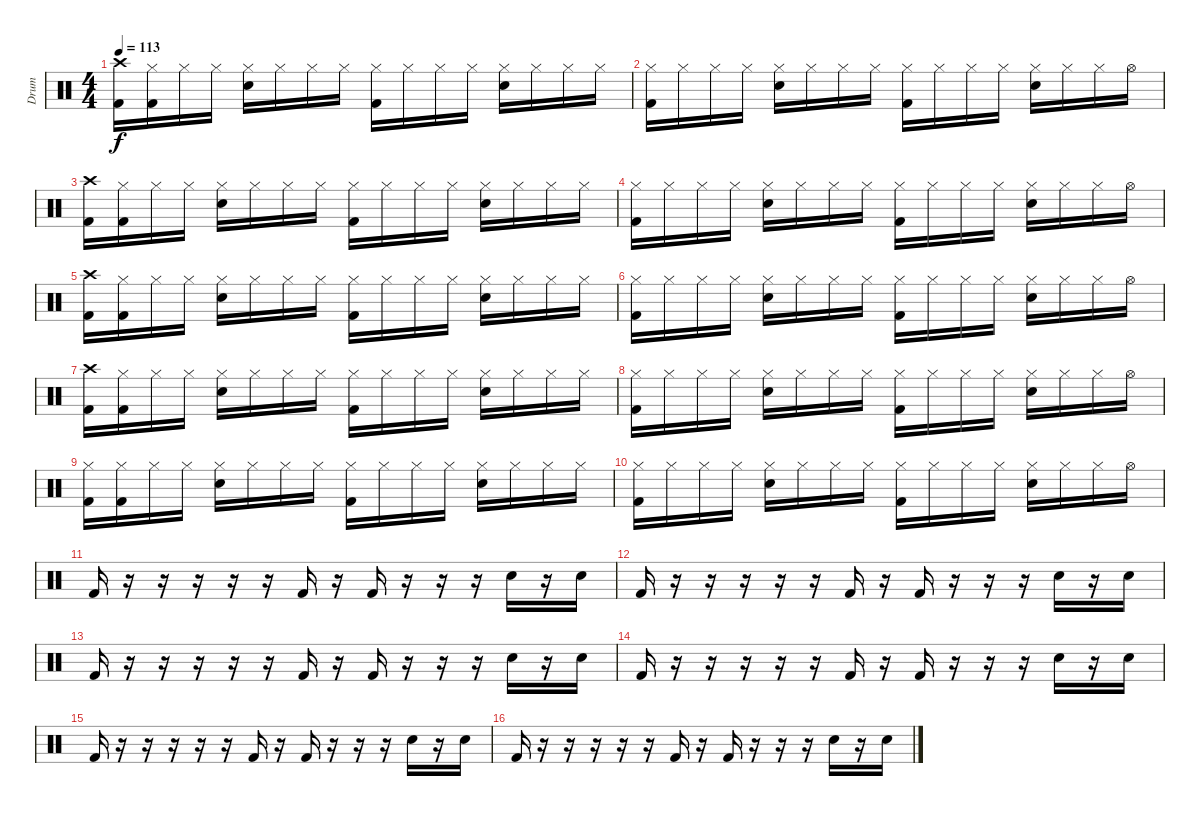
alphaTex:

\track ("Drum" "Drum") {instrument percussion}
\staff {score}
\articulation defaults
\ts (4 4)
\tempo 113
\clef neutral
\ks c
("Crash high (hit)" "Kick (hit) 2").16{dy f} ("Hi-Hat (closed)" "Kick (hit) 2").16 "Hi-Hat (closed)".16 "Hi-Hat (closed)".16 ("Hi-Hat (closed)" "Snare (hit) 2").16 "Hi-Hat (closed)".16 "Hi-Hat (closed)".16 "Hi-Hat (closed)".16 ("Hi-Hat (closed)" "Kick (hit) 2").16 "Hi-Hat (closed)".16 "Hi-Hat (closed)".16 "Hi-Hat (closed)".16 ("Hi-Hat (closed)" "Snare (hit) 2").16 "Hi-Hat (closed)".16 "Hi-Hat (closed)".16 "Hi-Hat (closed)".16 |
("Hi-Hat (closed)" "Kick (hit) 2").16 "Hi-Hat (closed)".16 "Hi-Hat (closed)".16 "Hi-Hat (closed)".16 ("Hi-Hat (closed)" "Snare (hit) 2").16 "Hi-Hat (closed)".16 "Hi-Hat (closed)".16 "Hi-Hat (closed)".16 ("Hi-Hat (closed)" "Kick (hit) 2").16 "Hi-Hat (closed)".16 "Hi-Hat (closed)".16 "Hi-Hat (closed)".16 ("Hi-Hat (closed)" "Snare (hit) 2").16 "Hi-Hat (closed)".16 "Hi-Hat (closed)".16 "Hi-Hat (open)".16 |
("Crash high (hit)" "Kick (hit) 2").16 ("Hi-Hat (closed)" "Kick (hit) 2").16 "Hi-Hat (closed)".16 "Hi-Hat (closed)".16 ("Hi-Hat (closed)" "Snare (hit) 2").16 "Hi-Hat (closed)".16 "Hi-Hat (closed)".16 "Hi-Hat (closed)".16 ("Hi-Hat (closed)" "Kick (hit) 2").16 "Hi-Hat (closed)".16 "Hi-Hat (closed)".16 "Hi-Hat (closed)".16 ("Hi-Hat (closed)" "Snare (hit) 2").16 "Hi-Hat (closed)".16 "Hi-Hat (closed)".16 "Hi-Hat (closed)".16 |
("Hi-Hat (closed)" "Kick (hit) 2").16 "Hi-Hat (closed)".16 "Hi-Hat (closed)".16 "Hi-Hat (closed)".16 ("Hi-Hat (closed)" "Snare (hit) 2").16 "Hi-Hat (closed)".16 "Hi-Hat (closed)".16 "Hi-Hat (closed)".16 ("Hi-Hat (closed)" "Kick (hit) 2").16 "Hi-Hat (closed)".16 "Hi-Hat (closed)".16 "Hi-Hat (closed)".16 ("Hi-Hat (closed)" "Snare (hit) 2").16 "Hi-Hat (closed)".16 "Hi-Hat (closed)".16 "Hi-Hat (open)".16 |
("Crash high (hit)" "Kick (hit) 2").16 ("Hi-Hat (closed)" "Kick (hit) 2").16 "Hi-Hat (closed)".16 "Hi-Hat (closed)".16 ("Hi-Hat (closed)" "Snare (hit) 2").16 "Hi-Hat (closed)".16 "Hi-Hat (closed)".16 "Hi-Hat (closed)".16 ("Hi-Hat (closed)" "Kick (hit) 2").16 "Hi-Hat (closed)".16 "Hi-Hat (closed)".16 "Hi-Hat (closed)".16 ("Hi-Hat (closed)" "Snare (hit) 2").16 "Hi-Hat (closed)".16 "Hi-Hat (closed)".16 "Hi-Hat (closed)".16 |
("Hi-Hat (closed)" "Kick (hit) 2").16 "Hi-Hat (closed)".16 "Hi-Hat (closed)".16 "Hi-Hat (closed)".16 ("Hi-Hat (closed)" "Snare (hit) 2").16 "Hi-Hat (closed)".16 "Hi-Hat (closed)".16 "Hi-Hat (closed)".16 ("Hi-Hat (closed)" "Kick (hit) 2").16 "Hi-Hat (closed)".16 "Hi-Hat (closed)".16 "Hi-Hat (closed)".16 ("Hi-Hat (closed)" "Snare (hit) 2").16 "Hi-Hat (closed)".16 "Hi-Hat (closed)".16 "Hi-Hat (open)".16 |
("Crash high (hit)" "Kick (hit) 2").16 ("Hi-Hat (closed)" "Kick (hit) 2").16 "Hi-Hat (closed)".16 "Hi-Hat (closed)".16 ("Hi-Hat (closed)" "Snare (hit) 2").16 "Hi-Hat (closed)".16 "Hi-Hat (closed)".16 "Hi-Hat (closed)".16 ("Hi-Hat (closed)" "Kick (hit) 2").16 "Hi-Hat (closed)".16 "Hi-Hat (closed)".16 "Hi-Hat (closed)".16 ("Hi-Hat (closed)" "Snare (hit) 2").16 "Hi-Hat (closed)".16 "Hi-Hat (closed)".16 "Hi-Hat (closed)".16 |
("Hi-Hat (closed)" "Kick (hit) 2").16 "Hi-Hat (closed)".16 "Hi-Hat (closed)".16 "Hi-Hat (closed)".16 ("Hi-Hat (closed)" "Snare (hit) 2").16 "Hi-Hat (closed)".16 "Hi-Hat (closed)".16 "Hi-Hat (closed)".16 ("Hi-Hat (closed)" "Kick (hit) 2").16 "Hi-Hat (closed)".16 "Hi-Hat (closed)".16 "Hi-Hat (closed)".16 ("Hi-Hat (closed)" "Snare (hit) 2").16 "Hi-Hat (closed)".16 "Hi-Hat (closed)".16 "Hi-Hat (open)".16 |
("Hi-Hat (closed)" "Kick (hit) 2").16 ("Hi-Hat (closed)" "Kick (hit) 2").16 "Hi-Hat (closed)".16 "Hi-Hat (closed)".16 ("Hi-Hat (closed)" "Snare (hit) 2").16 "Hi-Hat (closed)".16 "Hi-Hat (closed)".16 "Hi-Hat (closed)".16 ("Hi-Hat (closed)" "Kick (hit) 2").16 "Hi-Hat (closed)".16 "Hi-Hat (closed)".16 "Hi-Hat (closed)".16 ("Hi-Hat (closed)" "Snare (hit) 2").16 "Hi-Hat (closed)".16 "Hi-Hat (closed)".16 "Hi-Hat (closed)".16 |
("Hi-Hat (closed)" "Kick (hit) 2").16 "Hi-Hat (closed)".16 "Hi-Hat (closed)".16 "Hi-Hat (closed)".16 ("Hi-Hat (closed)" "Snare (hit) 2").16 "Hi-Hat (closed)".16 "Hi-Hat (closed)".16 "Hi-Hat (closed)".16 ("Hi-Hat (closed)" "Kick (hit) 2").16 "Hi-Hat (closed)".16 "Hi-Hat (closed)".16 "Hi-Hat (closed)".16 ("Hi-Hat (closed)" "Snare (hit) 2").16 "Hi-Hat (closed)".16 "Hi-Hat (closed)".16 "Hi-Hat (open)".16 |
"Kick (hit) 2".16 r.16 r.16 r.16 r.16 r.16 "Kick (hit) 2".16 r.16 "Kick (hit) 2".16 r.16 r.16 r.16 "Hand Clap (hit)".16 r.16 "Hand Clap (hit)".16 |
"Kick (hit) 2".16 r.16 r.16 r.16 r.16 r.16 "Kick (hit) 2".16 r.16 "Kick (hit) 2".16 r.16 r.16 r.16 "Hand Clap (hit)".16 r.16 "Hand Clap (hit)".16 |
"Kick (hit) 2".16 r.16 r.16 r.16 r.16 r.16 "Kick (hit) 2".16 r.16 "Kick (hit) 2".16 r.16 r.16 r.16 "Hand Clap (hit)".16 r.16 "Hand Clap (hit)".16 |
"Kick (hit) 2".16 r.16 r.16 r.16 r.16 r.16 "Kick (hit) 2".16 r.16 "Kick (hit) 2".16 r.16 r.16 r.16 "Hand Clap (hit)".16 r.16 "Hand Clap (hit)".16 |
"Kick (hit) 2".16 r.16 r.16 r.16 r.16 r.16 "Kick (hit) 2".16 r.16 "Kick (hit) 2".16 r.16 r.16 r.16 "Hand Clap (hit)".16 r.16 "Hand Clap (hit)".16 |
"Kick (hit) 2".16 r.16 r.16 r.16 r.16 r.16 "Kick (hit) 2".16 r.16 "Kick (hit) 2".16 r.16 r.16 r.16 "Hand Clap (hit)".16 r.16 "Hand Clap (hit)".16
